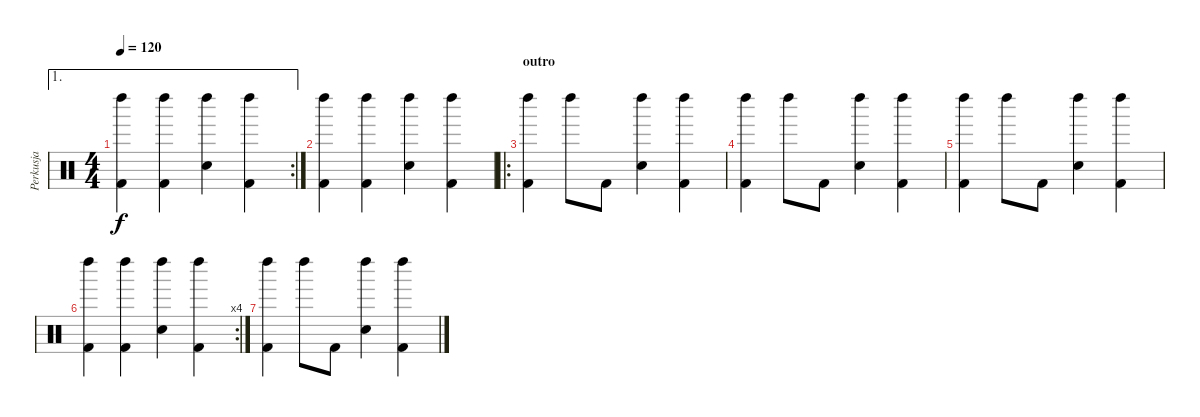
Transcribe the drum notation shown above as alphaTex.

\track ("Perkusja" "Perkusja") {instrument percussion}
\staff {score}
\articulation defaults
\ae 1
\rc 2
\ts (4 4)
\tempo 120
\clef neutral
\ks c
("Left Maraca (hit)" "Kick (hit) 2").4{dy f} ("Left Maraca (hit)" "Kick (hit) 2").4 ("Left Maraca (hit)" "Snare (hit) 2").4 ("Left Maraca (hit)" "Kick (hit) 2").4 |
("Left Maraca (hit)" "Kick (hit) 2").4 ("Left Maraca (hit)" "Kick (hit) 2").4 ("Left Maraca (hit)" "Snare (hit) 2").4 ("Left Maraca (hit)" "Kick (hit) 2").4 |
\ro
\section ("" "outro")
("Left Maraca (hit)" "Kick (hit) 2").4 "Left Maraca (hit)".8 "Kick (hit) 2".8 ("Left Maraca (hit)" "Snare (hit) 2").4 ("Left Maraca (hit)" "Kick (hit) 2").4 |
("Left Maraca (hit)" "Kick (hit) 2").4 "Left Maraca (hit)".8 "Kick (hit) 2".8 ("Left Maraca (hit)" "Snare (hit) 2").4 ("Left Maraca (hit)" "Kick (hit) 2").4 |
("Left Maraca (hit)" "Kick (hit) 2").4 "Left Maraca (hit)".8 "Kick (hit) 2".8 ("Left Maraca (hit)" "Snare (hit) 2").4 ("Left Maraca (hit)" "Kick (hit) 2").4 |
\rc 4
("Left Maraca (hit)" "Kick (hit) 2").4 ("Left Maraca (hit)" "Kick (hit) 2").4 ("Left Maraca (hit)" "Snare (hit) 2").4 ("Left Maraca (hit)" "Kick (hit) 2").4 |
("Left Maraca (hit)" "Kick (hit) 2").4 "Left Maraca (hit)".8 "Kick (hit) 2".8 ("Left Maraca (hit)" "Snare (hit) 2").4 ("Left Maraca (hit)" "Kick (hit) 2").4
